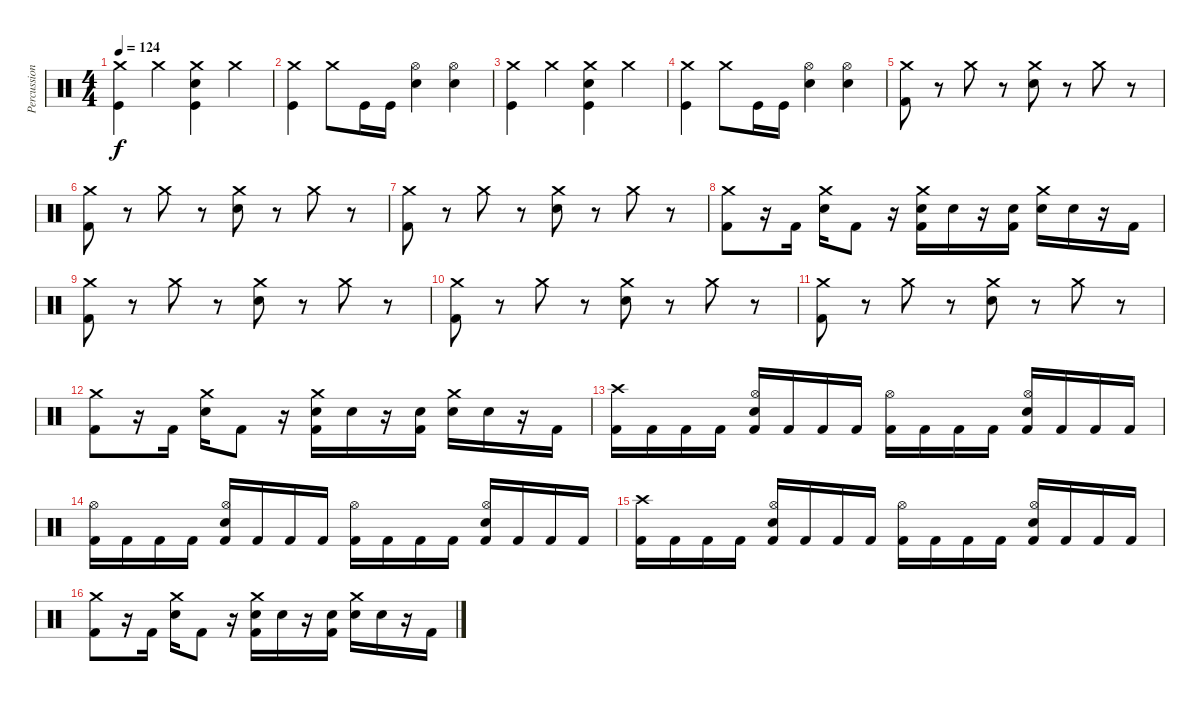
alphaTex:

\track ("Percussion" "Percussion") {instrument percussion}
\staff {score}
\articulation defaults
\ts (4 4)
\tempo 124
\clef neutral
\ks c
("Crash medium (hit)" "Kick (hit)").4{dy f} "Crash medium (hit)".4 ("Kick (hit)" "Crash medium (hit)" "Electric Snare (hit)").4 "Crash medium (hit)".4 |
("Crash medium (hit)" "Kick (hit)").4 "Crash medium (hit)".8 "Kick (hit)".16 "Kick (hit)".16 ("Hi-Hat (open)" "Electric Snare (hit)").4 ("Hi-Hat (open)" "Electric Snare (hit)").4 |
("Crash medium (hit)" "Kick (hit)").4 "Crash medium (hit)".4 ("Kick (hit)" "Crash medium (hit)" "Electric Snare (hit)").4 "Crash medium (hit)".4 |
("Crash medium (hit)" "Kick (hit)").4 "Crash medium (hit)".8 "Kick (hit)".16 "Kick (hit)".16 ("Hi-Hat (open)" "Electric Snare (hit)").4 ("Hi-Hat (open)" "Electric Snare (hit)").4 |
("Crash medium (hit)" "Kick (hit) 2").8 r.8 "Crash medium (hit)".8 r.8 ("Crash medium (hit)" "Electric Snare (hit)").8 r.8 "Crash medium (hit)".8 r.8 |
("Crash medium (hit)" "Kick (hit) 2").8 r.8 "Crash medium (hit)".8 r.8 ("Crash medium (hit)" "Electric Snare (hit)").8 r.8 "Crash medium (hit)".8 r.8 |
("Crash medium (hit)" "Kick (hit) 2").8 r.8 "Crash medium (hit)".8 r.8 ("Crash medium (hit)" "Electric Snare (hit)").8 r.8 "Crash medium (hit)".8 r.8 |
("Crash medium (hit)" "Kick (hit) 2").8 r.16 "Kick (hit) 2".16 ("Crash medium (hit)" "Electric Snare (hit)").16 "Kick (hit) 2".8 r.16 ("Crash medium (hit)" "Electric Snare (hit)" "Kick (hit) 2").16 "Electric Snare (hit)".16 r.16 ("Electric Snare (hit)" "Kick (hit) 2").16 ("Crash medium (hit)" "Electric Snare (hit)").16 "Electric Snare (hit)".16 r.16 "Kick (hit) 2".16 |
("Crash medium (hit)" "Kick (hit) 2").8 r.8 "Crash medium (hit)".8 r.8 ("Crash medium (hit)" "Electric Snare (hit)").8 r.8 "Crash medium (hit)".8 r.8 |
("Crash medium (hit)" "Kick (hit) 2").8 r.8 "Crash medium (hit)".8 r.8 ("Crash medium (hit)" "Electric Snare (hit)").8 r.8 "Crash medium (hit)".8 r.8 |
("Crash medium (hit)" "Kick (hit) 2").8 r.8 "Crash medium (hit)".8 r.8 ("Crash medium (hit)" "Electric Snare (hit)").8 r.8 "Crash medium (hit)".8 r.8 |
("Crash medium (hit)" "Kick (hit) 2").8 r.16 "Kick (hit) 2".16 ("Crash medium (hit)" "Electric Snare (hit)").16 "Kick (hit) 2".8 r.16 ("Crash medium (hit)" "Electric Snare (hit)" "Kick (hit) 2").16 "Electric Snare (hit)".16 r.16 ("Electric Snare (hit)" "Kick (hit) 2").16 ("Crash medium (hit)" "Electric Snare (hit)").16 "Electric Snare (hit)".16 r.16 "Kick (hit) 2".16 |
("Crash high (hit)" "Kick (hit) 2").16 "Kick (hit) 2".16 "Kick (hit) 2".16 "Kick (hit) 2".16 ("Hi-Hat (open)" "Electric Snare (hit)" "Kick (hit) 2").16 "Kick (hit) 2".16 "Kick (hit) 2".16 "Kick (hit) 2".16 ("Hi-Hat (open)" "Kick (hit) 2").16 "Kick (hit) 2".16 "Kick (hit) 2".16 "Kick (hit) 2".16 ("Hi-Hat (open)" "Electric Snare (hit)" "Kick (hit) 2").16 "Kick (hit) 2".16 "Kick (hit) 2".16 "Kick (hit) 2".16 |
("Hi-Hat (open)" "Kick (hit) 2").16 "Kick (hit) 2".16 "Kick (hit) 2".16 "Kick (hit) 2".16 ("Hi-Hat (open)" "Electric Snare (hit)" "Kick (hit) 2").16 "Kick (hit) 2".16 "Kick (hit) 2".16 "Kick (hit) 2".16 ("Hi-Hat (open)" "Kick (hit) 2").16 "Kick (hit) 2".16 "Kick (hit) 2".16 "Kick (hit) 2".16 ("Hi-Hat (open)" "Electric Snare (hit)" "Kick (hit) 2").16 "Kick (hit) 2".16 "Kick (hit) 2".16 "Kick (hit) 2".16 |
("Crash high (hit)" "Kick (hit) 2").16 "Kick (hit) 2".16 "Kick (hit) 2".16 "Kick (hit) 2".16 ("Hi-Hat (open)" "Electric Snare (hit)" "Kick (hit) 2").16 "Kick (hit) 2".16 "Kick (hit) 2".16 "Kick (hit) 2".16 ("Hi-Hat (open)" "Kick (hit) 2").16 "Kick (hit) 2".16 "Kick (hit) 2".16 "Kick (hit) 2".16 ("Hi-Hat (open)" "Electric Snare (hit)" "Kick (hit) 2").16 "Kick (hit) 2".16 "Kick (hit) 2".16 "Kick (hit) 2".16 |
("Crash medium (hit)" "Kick (hit) 2").8 r.16 "Kick (hit) 2".16 ("Crash medium (hit)" "Electric Snare (hit)").16 "Kick (hit) 2".8 r.16 ("Crash medium (hit)" "Electric Snare (hit)" "Kick (hit) 2").16 "Electric Snare (hit)".16 r.16 ("Electric Snare (hit)" "Kick (hit) 2").16 ("Crash medium (hit)" "Electric Snare (hit)").16 "Electric Snare (hit)".16 r.16 "Kick (hit) 2".16
